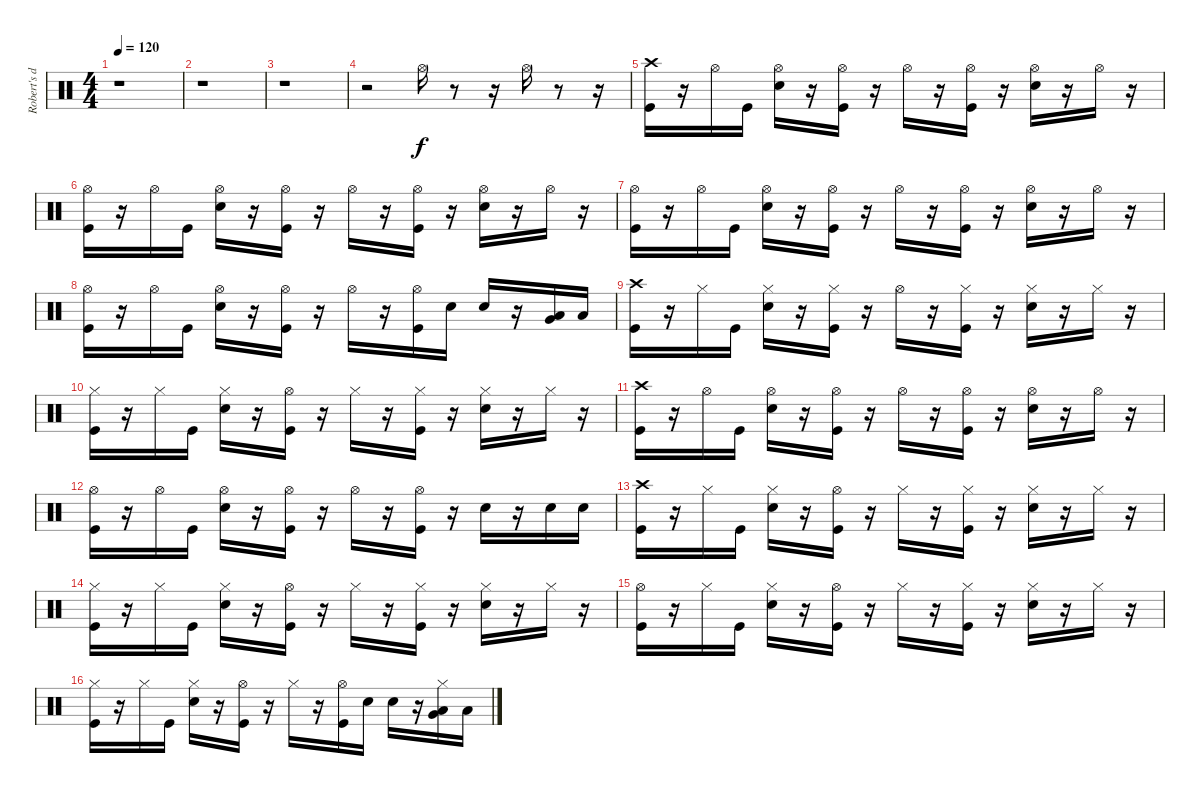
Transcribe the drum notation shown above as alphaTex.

\track ("Robert's drums" "Robert's d") {instrument percussion}
\staff {score}
\articulation defaults
\ts (4 4)
\tempo 120
\clef neutral
\ks c
r.1{dy f} |
r.1 |
r.1 |
r.2 "Hi-Hat (open)".16 r.8 r.16 "Hi-Hat (open)".16 r.8 r.16 |
("Crash high (hit)" "Kick (hit)").16 r.16 "Hi-Hat (open)".16 "Kick (hit)".16 ("Electric Snare (hit)" "Hi-Hat (open)").16 r.16 ("Kick (hit)" "Hi-Hat (open)").16 r.16 "Hi-Hat (open)".16 r.16 ("Hi-Hat (open)" "Kick (hit)").16 r.16 ("Hi-Hat (open)" "Electric Snare (hit)").16 r.16 "Hi-Hat (open)".16 r.16 |
("Kick (hit)" "Hi-Hat (open)").16 r.16 "Hi-Hat (open)".16 "Kick (hit)".16 ("Electric Snare (hit)" "Hi-Hat (open)").16 r.16 ("Hi-Hat (open)" "Kick (hit)").16 r.16 "Hi-Hat (open)".16 r.16 ("Hi-Hat (open)" "Kick (hit)").16 r.16 ("Electric Snare (hit)" "Hi-Hat (open)").16 r.16 "Hi-Hat (open)".16 r.16 |
("Hi-Hat (open)" "Kick (hit)").16 r.16 "Hi-Hat (open)".16 "Kick (hit)".16 ("Electric Snare (hit)" "Hi-Hat (open)").16 r.16 ("Hi-Hat (open)" "Kick (hit)").16 r.16 "Hi-Hat (open)".16 r.16 ("Kick (hit)" "Hi-Hat (open)").16 r.16 ("Electric Snare (hit)" "Hi-Hat (open)").16 r.16 "Hi-Hat (open)".16 r.16 |
("Hi-Hat (open)" "Kick (hit)").16 r.16 "Hi-Hat (open)".16 "Kick (hit)".16 ("Electric Snare (hit)" "Hi-Hat (open)").16 r.16 ("Hi-Hat (open)" "Kick (hit)").16 r.16 "Hi-Hat (open)".16 r.16 ("Hi-Hat (open)" "Kick (hit)").16 "Electric Snare (hit)".16 "Electric Snare (hit)".16 r.16 ("Very Low Tom (hit)" "Low Floor Tom (hit)").16 "Low Floor Tom (hit)".16 |
("Kick (hit)" "Crash high (hit)").16 r.16 "Hi-Hat (closed)".16 "Kick (hit)".16 ("Hi-Hat (closed)" "Electric Snare (hit)").16 r.16 ("Hi-Hat (closed)" "Kick (hit)").16 r.16 "Hi-Hat (open)".16 r.16 ("Kick (hit)" "Hi-Hat (closed)").16 r.16 ("Hi-Hat (closed)" "Electric Snare (hit)").16 r.16 "Hi-Hat (closed)".16 r.16 |
("Hi-Hat (closed)" "Kick (hit)").16 r.16 "Hi-Hat (closed)".16 "Kick (hit)".16 ("Hi-Hat (closed)" "Electric Snare (hit)").16 r.16 ("Hi-Hat (open)" "Kick (hit)").16 r.16 "Hi-Hat (closed)".16 r.16 ("Hi-Hat (closed)" "Kick (hit)").16 r.16 ("Hi-Hat (closed)" "Electric Snare (hit)").16 r.16 "Hi-Hat (closed)".16 r.16 |
("Crash high (hit)" "Kick (hit)").16 r.16 "Hi-Hat (open)".16 "Kick (hit)".16 ("Hi-Hat (open)" "Electric Snare (hit)").16 r.16 ("Hi-Hat (open)" "Kick (hit)").16 r.16 "Hi-Hat (open)".16 r.16 ("Hi-Hat (open)" "Kick (hit)").16 r.16 ("Hi-Hat (open)" "Electric Snare (hit)").16 r.16 "Hi-Hat (open)".16 r.16 |
("Hi-Hat (open)" "Kick (hit)").16 r.16 "Hi-Hat (open)".16 "Kick (hit)".16 ("Hi-Hat (open)" "Electric Snare (hit)").16 r.16 ("Hi-Hat (open)" "Kick (hit)").16 r.16 "Hi-Hat (open)".16 r.16 ("Hi-Hat (open)" "Kick (hit)").16 r.16 "Electric Snare (hit)".16 r.16 "Electric Snare (hit)".16 "Electric Snare (hit)".16 |
("Crash high (hit)" "Kick (hit)").16 r.16 "Hi-Hat (closed)".16 "Kick (hit)".16 ("Hi-Hat (closed)" "Electric Snare (hit)").16 r.16 ("Hi-Hat (open)" "Kick (hit)").16 r.16 "Hi-Hat (closed)".16 r.16 ("Kick (hit)" "Hi-Hat (closed)").16 r.16 ("Hi-Hat (closed)" "Electric Snare (hit)").16 r.16 "Hi-Hat (closed)".16 r.16 |
("Hi-Hat (closed)" "Kick (hit)").16 r.16 "Hi-Hat (closed)".16 "Kick (hit)".16 ("Hi-Hat (closed)" "Electric Snare (hit)").16 r.16 ("Kick (hit)" "Hi-Hat (open)").16 r.16 "Hi-Hat (closed)".16 r.16 ("Kick (hit)" "Hi-Hat (closed)").16 r.16 ("Electric Snare (hit)" "Hi-Hat (closed)").16 r.16 "Hi-Hat (closed)".16 r.16 |
("Hi-Hat (open)" "Kick (hit)").16 r.16 "Hi-Hat (closed)".16 "Kick (hit)".16 ("Electric Snare (hit)" "Hi-Hat (closed)").16 r.16 ("Kick (hit)" "Hi-Hat (open)").16 r.16 "Hi-Hat (closed)".16 r.16 ("Hi-Hat (closed)" "Kick (hit)").16 r.16 ("Electric Snare (hit)" "Hi-Hat (closed)").16 r.16 "Hi-Hat (closed)".16 r.16 |
("Hi-Hat (closed)" "Kick (hit)").16 r.16 "Hi-Hat (closed)".16 "Kick (hit)".16 ("Hi-Hat (closed)" "Electric Snare (hit)").16 r.16 ("Kick (hit)" "Hi-Hat (open)").16 r.16 "Hi-Hat (closed)".16 r.16 ("Kick (hit)" "Hi-Hat (open)").16 "Electric Snare (hit)".16 "Electric Snare (hit)".16 r.16 ("Very Low Tom (hit)" "Low Floor Tom (hit)" "Hi-Hat (closed)").16 "Low Floor Tom (hit)".16
